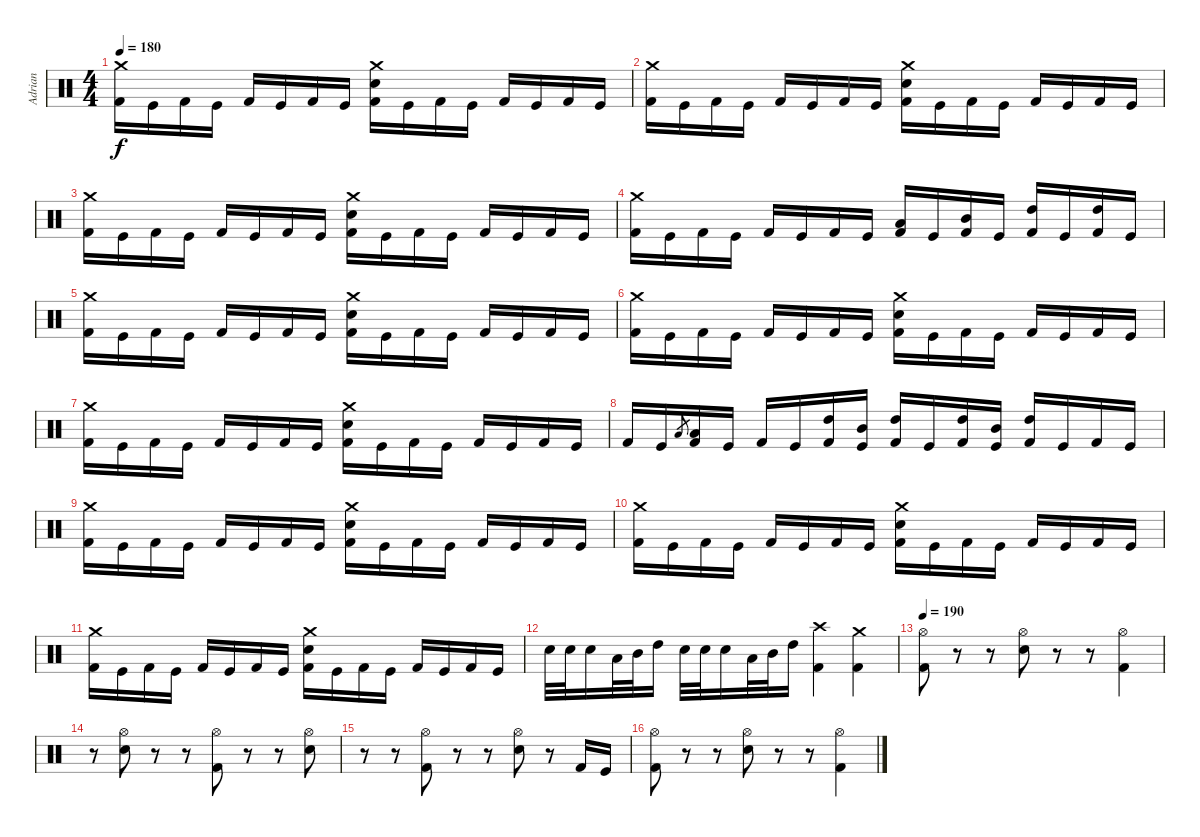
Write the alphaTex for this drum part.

\track ("Adrian" "Adrian") {instrument percussion}
\staff {score}
\articulation defaults
\ts (4 4)
\tempo 180
\tempo 130
\tempo 180
\clef neutral
\ks c
("Crash medium (hit)" "Kick (hit) 2").16{dy f} "Kick (hit)".16 "Kick (hit) 2".16 "Kick (hit)".16 "Kick (hit) 2".16 "Kick (hit)".16 "Kick (hit) 2".16 "Kick (hit)".16 ("Crash medium (hit)" "Electric Snare (hit)" "Kick (hit) 2").16 "Kick (hit)".16 "Kick (hit) 2".16 "Kick (hit)".16 "Kick (hit) 2".16 "Kick (hit)".16 "Kick (hit) 2".16 "Kick (hit)".16 |
("Crash medium (hit)" "Kick (hit) 2").16 "Kick (hit)".16 "Kick (hit) 2".16 "Kick (hit)".16 "Kick (hit) 2".16 "Kick (hit)".16 "Kick (hit) 2".16 "Kick (hit)".16 ("Crash medium (hit)" "Electric Snare (hit)" "Kick (hit) 2").16 "Kick (hit)".16 "Kick (hit) 2".16 "Kick (hit)".16 "Kick (hit) 2".16 "Kick (hit)".16 "Kick (hit) 2".16 "Kick (hit)".16 |
("Crash medium (hit)" "Kick (hit) 2").16 "Kick (hit)".16 "Kick (hit) 2".16 "Kick (hit)".16 "Kick (hit) 2".16 "Kick (hit)".16 "Kick (hit) 2".16 "Kick (hit)".16 ("Crash medium (hit)" "Electric Snare (hit)" "Kick (hit) 2").16 "Kick (hit)".16 "Kick (hit) 2".16 "Kick (hit)".16 "Kick (hit) 2".16 "Kick (hit)".16 "Kick (hit) 2".16 "Kick (hit)".16 |
("Crash medium (hit)" "Kick (hit) 2").16 "Kick (hit)".16 "Kick (hit) 2".16 "Kick (hit)".16 "Kick (hit) 2".16 "Kick (hit)".16 "Kick (hit) 2".16 "Kick (hit)".16 ("Low Tom (hit)" "Kick (hit) 2").16 "Kick (hit)".16 ("Mid Tom (hit)" "Kick (hit) 2").16 "Kick (hit)".16 ("High Tom (hit)" "Kick (hit) 2").16 "Kick (hit)".16 ("High Tom (hit)" "Kick (hit) 2").16 "Kick (hit)".16 |
("Crash medium (hit)" "Kick (hit) 2").16 "Kick (hit)".16 "Kick (hit) 2".16 "Kick (hit)".16 "Kick (hit) 2".16 "Kick (hit)".16 "Kick (hit) 2".16 "Kick (hit)".16 ("Crash medium (hit)" "Electric Snare (hit)" "Kick (hit) 2").16 "Kick (hit)".16 "Kick (hit) 2".16 "Kick (hit)".16 "Kick (hit) 2".16 "Kick (hit)".16 "Kick (hit) 2".16 "Kick (hit)".16 |
("Crash medium (hit)" "Kick (hit) 2").16 "Kick (hit)".16 "Kick (hit) 2".16 "Kick (hit)".16 "Kick (hit) 2".16 "Kick (hit)".16 "Kick (hit) 2".16 "Kick (hit)".16 ("Crash medium (hit)" "Electric Snare (hit)" "Kick (hit) 2").16 "Kick (hit)".16 "Kick (hit) 2".16 "Kick (hit)".16 "Kick (hit) 2".16 "Kick (hit)".16 "Kick (hit) 2".16 "Kick (hit)".16 |
("Crash medium (hit)" "Kick (hit) 2").16 "Kick (hit)".16 "Kick (hit) 2".16 "Kick (hit)".16 "Kick (hit) 2".16 "Kick (hit)".16 "Kick (hit) 2".16 "Kick (hit)".16 ("Crash medium (hit)" "Electric Snare (hit)" "Kick (hit) 2").16 "Kick (hit)".16 "Kick (hit) 2".16 "Kick (hit)".16 "Kick (hit) 2".16 "Kick (hit)".16 "Kick (hit) 2".16 "Kick (hit)".16 |
"Kick (hit) 2".16 "Kick (hit)".16 "Low Tom (hit)".8{gr} ("Low Tom (hit)" "Kick (hit) 2").16 "Kick (hit)".16 "Kick (hit) 2".16 "Kick (hit)".16 ("High Tom (hit)" "Kick (hit) 2").16 ("Mid Tom (hit)" "Kick (hit)").16 ("High Tom (hit)" "Kick (hit) 2").16 "Kick (hit)".16 ("High Tom (hit)" "Kick (hit) 2").16 ("Mid Tom (hit)" "Kick (hit)").16 ("High Tom (hit)" "Kick (hit) 2").16 "Kick (hit)".16 "Kick (hit) 2".16 "Kick (hit)".16 |
("Crash medium (hit)" "Kick (hit) 2").16 "Kick (hit)".16 "Kick (hit) 2".16 "Kick (hit)".16 "Kick (hit) 2".16 "Kick (hit)".16 "Kick (hit) 2".16 "Kick (hit)".16 ("Crash medium (hit)" "Electric Snare (hit)" "Kick (hit) 2").16 "Kick (hit)".16 "Kick (hit) 2".16 "Kick (hit)".16 "Kick (hit) 2".16 "Kick (hit)".16 "Kick (hit) 2".16 "Kick (hit)".16 |
("Crash medium (hit)" "Kick (hit) 2").16 "Kick (hit)".16 "Kick (hit) 2".16 "Kick (hit)".16 "Kick (hit) 2".16 "Kick (hit)".16 "Kick (hit) 2".16 "Kick (hit)".16 ("Crash medium (hit)" "Electric Snare (hit)" "Kick (hit) 2").16 "Kick (hit)".16 "Kick (hit) 2".16 "Kick (hit)".16 "Kick (hit) 2".16 "Kick (hit)".16 "Kick (hit) 2".16 "Kick (hit)".16 |
("Crash medium (hit)" "Kick (hit) 2").16 "Kick (hit)".16 "Kick (hit) 2".16 "Kick (hit)".16 "Kick (hit) 2".16 "Kick (hit)".16 "Kick (hit) 2".16 "Kick (hit)".16 ("Crash medium (hit)" "Electric Snare (hit)" "Kick (hit) 2").16 "Kick (hit)".16 "Kick (hit) 2".16 "Kick (hit)".16 "Kick (hit) 2".16 "Kick (hit)".16 "Kick (hit) 2".16 "Kick (hit)".16 |
"Electric Snare (hit)".32 "Electric Snare (hit)".32 "Electric Snare (hit)".16 "Low Tom (hit)".32 "Mid Tom (hit)".32 "High Tom (hit)".16 "Electric Snare (hit)".32 "Electric Snare (hit)".32 "Electric Snare (hit)".16 "Low Tom (hit)".32 "Mid Tom (hit)".32 "High Tom (hit)".16 ("Crash high (hit)" "Kick (hit) 2").4 ("Crash medium (hit)" "Kick (hit) 2").4 |
\tempo 190
("Hi-Hat (open)" "Kick (hit) 2").8 r.8 r.8 ("Hi-Hat (open)" "Electric Snare (hit)").8 r.8 r.8 ("Hi-Hat (open)" "Kick (hit) 2").4 |
r.8 ("Hi-Hat (open)" "Electric Snare (hit)").8 r.8 r.8 ("Hi-Hat (open)" "Kick (hit) 2").8 r.8 r.8 ("Hi-Hat (open)" "Electric Snare (hit)").8 |
r.8 r.8 ("Hi-Hat (open)" "Kick (hit) 2").8 r.8 r.8 ("Hi-Hat (open)" "Electric Snare (hit)").8 r.8 "Kick (hit) 2".16 "Kick (hit)".16 |
("Hi-Hat (open)" "Kick (hit) 2").8 r.8 r.8 ("Hi-Hat (open)" "Electric Snare (hit)").8 r.8 r.8 ("Hi-Hat (open)" "Kick (hit) 2").4
